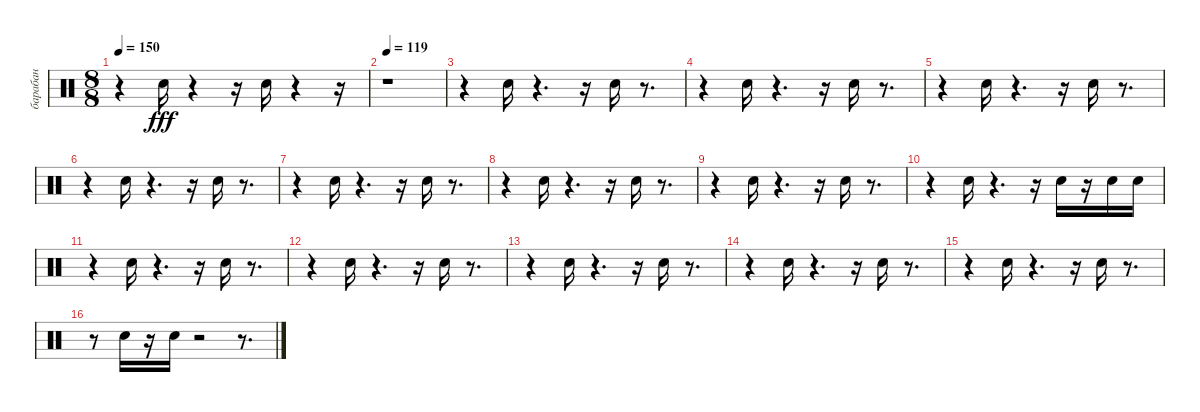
\track ("барабан" "барабан") {instrument percussion}
\staff {score}
\articulation defaults
\ts (8 8)
\tempo 150
\clef neutral
\ks c
r.4{dy fff} "Snare (hit) 2".16 r.4 r.16 "Snare (hit) 2".16 r.4 r.16 |
\tempo 119
r.1 |
r.4 "Snare (hit) 2".16 r.4{d} r.16 "Snare (hit) 2".16 r.8{d} |
r.4 "Snare (hit) 2".16 r.4{d} r.16 "Snare (hit) 2".16 r.8{d} |
r.4 "Snare (hit) 2".16 r.4{d} r.16 "Snare (hit) 2".16 r.8{d} |
r.4 "Snare (hit) 2".16 r.4{d} r.16 "Snare (hit) 2".16 r.8{d} |
r.4 "Snare (hit) 2".16 r.4{d} r.16 "Snare (hit) 2".16 r.8{d} |
r.4 "Snare (hit) 2".16 r.4{d} r.16 "Snare (hit) 2".16 r.8{d} |
r.4 "Snare (hit) 2".16 r.4{d} r.16 "Snare (hit) 2".16 r.8{d} |
r.4 "Snare (hit) 2".16 r.4{d} r.16 "Snare (hit) 2".16 r.16 "Snare (hit) 2".16 "Snare (hit) 2".16 |
r.4 "Snare (hit) 2".16 r.4{d} r.16 "Snare (hit) 2".16 r.8{d} |
r.4 "Snare (hit) 2".16 r.4{d} r.16 "Snare (hit) 2".16 r.8{d} |
r.4 "Snare (hit) 2".16 r.4{d} r.16 "Snare (hit) 2".16 r.8{d} |
r.4 "Snare (hit) 2".16 r.4{d} r.16 "Snare (hit) 2".16 r.8{d} |
r.4 "Snare (hit) 2".16 r.4{d} r.16 "Snare (hit) 2".16 r.8{d} |
r.8 "Snare (hit) 2".16 r.16 "Snare (hit) 2".16 r.2 r.8{d}
